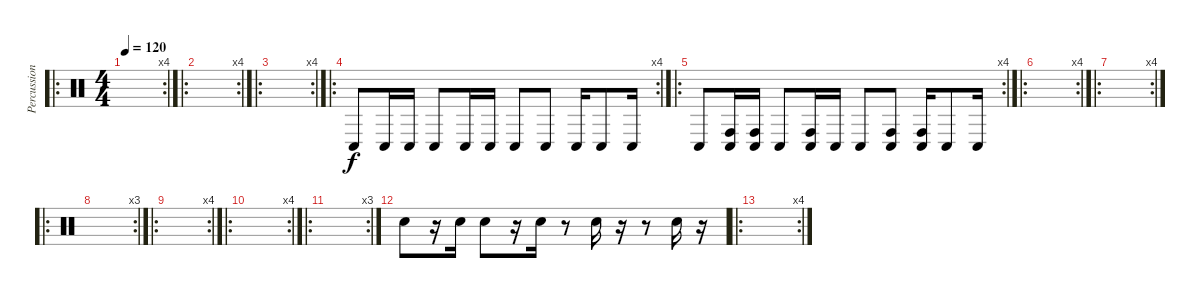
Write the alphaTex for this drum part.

\track ("Percussions" "Percussion") {instrument percussion}
\staff {score}
\articulation defaults
\ro
\rc 4
\ts (4 4)
\tempo 120
\clef neutral
\ks c
|
\ro
\rc 4
|
\ro
\rc 4
|
\ro
\rc 4 "Conga low (hit)".8 "Conga low (hit)".16 "Conga low (hit)".16 "Conga low (hit)".8 "Conga low (hit)".16 "Conga low (hit)".16 "Conga low (hit)".8 "Conga low (hit)".8 "Conga low (hit)".16 "Conga low (hit)".8 "Conga low (hit)".16
|
\ro
\rc 4 "Conga low (hit)".8
("Conga low (hit)" "Conga high (hit)").16 ("Conga low (hit)" "Conga high (hit)").16 "Conga low (hit)".8 ("Conga low (hit)" "Conga high (hit)").16 "Conga low (hit)".16 "Conga low (hit)".8 ("Conga low (hit)" "Conga high (hit)").8 ("Conga low (hit)" "Conga high (hit)").16 "Conga low (hit)".8 "Conga low (hit)".16 |
\ro
\rc 4
|
\ro
\rc 4
|
\ro
\rc 3
|
\ro
\rc 4
|
\ro
\rc 4
|
\ro
\rc 3
|
"Hand Clap (hit)".8 r.16 "Hand Clap (hit)".16 "Hand Clap (hit)".8 r.16 "Hand Clap (hit)".16 r.8 "Hand Clap (hit)".16 r.16 r.8 "Hand Clap (hit)".16 r.16 |
\ro
\rc 4
